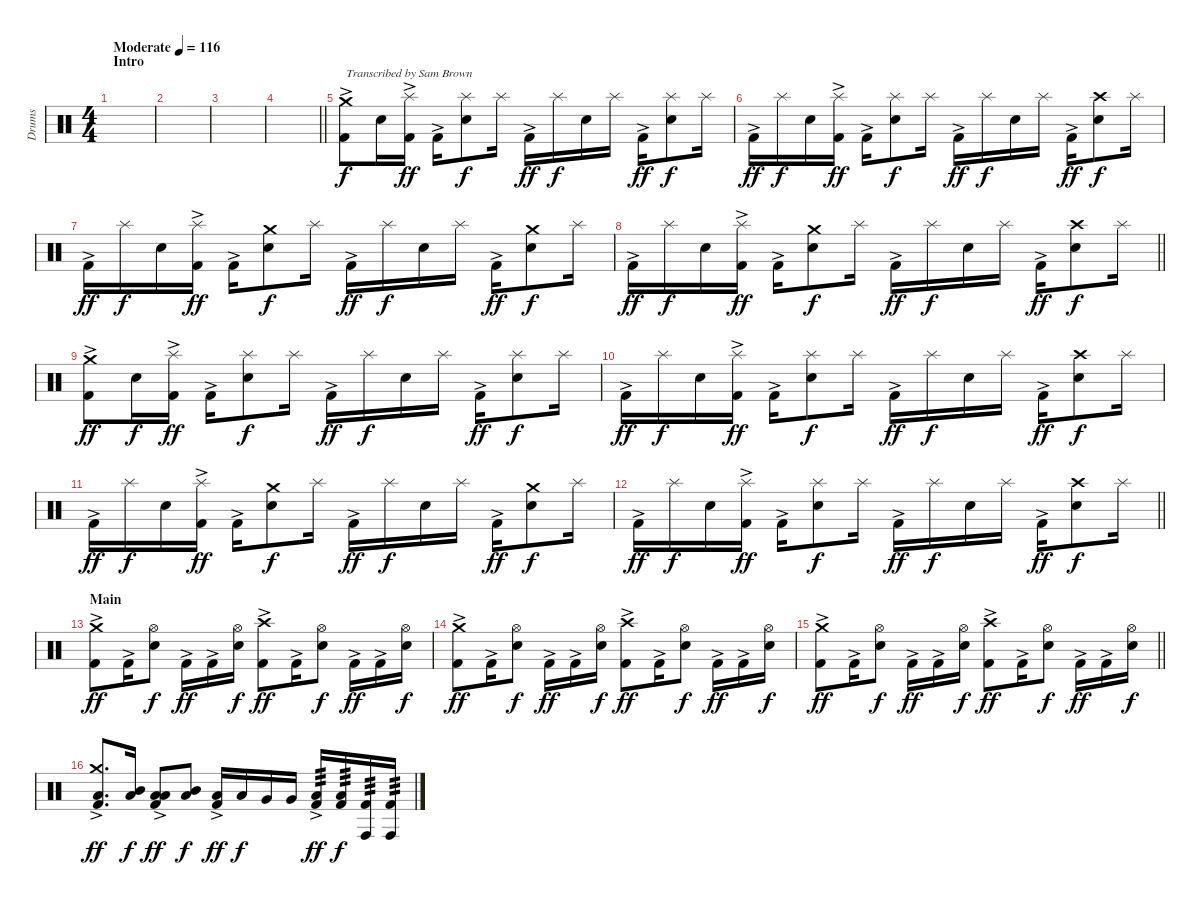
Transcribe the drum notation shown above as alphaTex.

\track ("Drums" "Drums") {instrument percussion}
\staff {score}
\articulation defaults
\ts (4 4)
\section ("" "Intro")
\tempo (116 "Moderate")
\clef neutral
\ks c
|
|
|
\barLineRight lightlight
|
\section ("" "")
("Kick (hit) 2"{ac} "Crash medium (hit)").8{txt "Transcribed by Sam Brown"} "Snare (hit) 2".16{dy f} ("Kick (hit) 2"{ac} "Splash (hit)").16{dy ff} "Kick (hit) 2"{ac}.16 ("Snare (hit) 2" "Splash (hit)").8{dy f} "Splash (hit)".16 "Kick (hit) 2"{ac}.16{dy ff} "Splash (hit)".16{dy f} "Snare (hit) 2".16 "Splash (hit)".16 "Kick (hit) 2"{ac}.16{dy ff} ("Snare (hit) 2" "Splash (hit)").8{dy f} "Splash (hit)".16 |
"Kick (hit) 2"{ac}.16{dy ff} "Splash (hit)".16{dy f} "Snare (hit) 2".16 ("Kick (hit) 2"{ac} "Splash (hit)").16{dy ff} "Kick (hit) 2"{ac}.16 ("Snare (hit) 2" "Splash (hit)").8{dy f} "Splash (hit)".16 "Kick (hit) 2"{ac}.16{dy ff} "Splash (hit)".16{dy f} "Snare (hit) 2".16 "Splash (hit)".16 "Kick (hit) 2"{ac}.16{dy ff} ("Snare (hit) 2" "Crash high (hit)").8{dy f} "Splash (hit)".16 |
"Kick (hit) 2"{ac}.16{dy ff} "Splash (hit)".16{dy f} "Snare (hit) 2".16 ("Kick (hit) 2"{ac} "Splash (hit)").16{dy ff} "Kick (hit) 2"{ac}.16 ("Snare (hit) 2" "Crash medium (hit)").8{dy f} "Splash (hit)".16 "Kick (hit) 2"{ac}.16{dy ff} "Splash (hit)".16{dy f} "Snare (hit) 2".16 "Splash (hit)".16 "Kick (hit) 2"{ac}.16{dy ff} ("Snare (hit) 2" "Crash medium (hit)").8{dy f} "Splash (hit)".16 |
\barLineRight lightlight "Kick (hit) 2"{ac}.16{dy ff} "Splash (hit)".16{dy f} "Snare (hit) 2".16
("Kick (hit) 2"{ac} "Splash (hit)").16{dy ff} "Kick (hit) 2"{ac}.16 ("Snare (hit) 2" "Crash medium (hit)").8{dy f} "Splash (hit)".16 "Kick (hit) 2"{ac}.16{dy ff} "Splash (hit)".16{dy f} "Snare (hit) 2".16 "Splash (hit)".16 "Kick (hit) 2"{ac}.16{dy ff} ("Snare (hit) 2" "Crash high (hit)").8{dy f} "Splash (hit)".16 |
\section ("" "")
("Kick (hit) 2"{ac} "Crash medium (hit)").8{dy ff} "Snare (hit) 2".16{dy f} ("Kick (hit) 2"{ac} "Splash (hit)").16{dy ff} "Kick (hit) 2"{ac}.16 ("Snare (hit) 2" "Splash (hit)").8{dy f} "Splash (hit)".16 "Kick (hit) 2"{ac}.16{dy ff} "Splash (hit)".16{dy f} "Snare (hit) 2".16 "Splash (hit)".16 "Kick (hit) 2"{ac}.16{dy ff} ("Snare (hit) 2" "Splash (hit)").8{dy f} "Splash (hit)".16 |
"Kick (hit) 2"{ac}.16{dy ff} "Splash (hit)".16{dy f} "Snare (hit) 2".16 ("Kick (hit) 2"{ac} "Splash (hit)").16{dy ff} "Kick (hit) 2"{ac}.16 ("Snare (hit) 2" "Splash (hit)").8{dy f} "Splash (hit)".16 "Kick (hit) 2"{ac}.16{dy ff} "Splash (hit)".16{dy f} "Snare (hit) 2".16 "Splash (hit)".16 "Kick (hit) 2"{ac}.16{dy ff} ("Snare (hit) 2" "Crash high (hit)").8{dy f} "Splash (hit)".16 |
"Kick (hit) 2"{ac}.16{dy ff} "Splash (hit)".16{dy f} "Snare (hit) 2".16 ("Kick (hit) 2"{ac} "Splash (hit)").16{dy ff} "Kick (hit) 2"{ac}.16 ("Snare (hit) 2" "Crash medium (hit)").8{dy f} "Splash (hit)".16 "Kick (hit) 2"{ac}.16{dy ff} "Splash (hit)".16{dy f} "Snare (hit) 2".16 "Splash (hit)".16 "Kick (hit) 2"{ac}.16{dy ff} ("Snare (hit) 2" "Crash medium (hit)").8{dy f} "Splash (hit)".16 |
\barLineRight lightlight "Kick (hit) 2"{ac}.16{dy ff} "Splash (hit)".16{dy f} "Snare (hit) 2".16
("Kick (hit) 2"{ac} "Splash (hit)").16{dy ff} "Kick (hit) 2"{ac}.16 ("Snare (hit) 2" "Splash (hit)").8{dy f} "Splash (hit)".16 "Kick (hit) 2"{ac}.16{dy ff} "Splash (hit)".16{dy f} "Snare (hit) 2".16 "Splash (hit)".16 "Kick (hit) 2"{ac}.16{dy ff} ("Snare (hit) 2" "Crash high (hit)").8{dy f} "Splash (hit)".16 |
\section ("" "Main")
("Kick (hit) 2"{ac} "Crash medium (hit)").8{dy ff} "Kick (hit) 2"{ac}.16 ("Snare (hit) 2" "Hi-Hat (open)").8{dy f} "Kick (hit) 2"{ac}.16{dy ff} "Kick (hit) 2"{ac}.16 ("Snare (hit) 2" "Hi-Hat (open)").16{dy f} ("Kick (hit) 2"{ac} "Crash high (hit)").8{dy ff} "Kick (hit) 2"{ac}.16 ("Snare (hit) 2" "Hi-Hat (open)").8{dy f} "Kick (hit) 2"{ac}.16{dy ff} "Kick (hit) 2"{ac}.16 ("Snare (hit) 2" "Hi-Hat (open)").16{dy f} |
("Kick (hit) 2"{ac} "Crash medium (hit)").8{dy ff} "Kick (hit) 2"{ac}.16 ("Snare (hit) 2" "Hi-Hat (open)").8{dy f} "Kick (hit) 2"{ac}.16{dy ff} "Kick (hit) 2"{ac}.16 ("Snare (hit) 2" "Hi-Hat (open)").16{dy f} ("Kick (hit) 2"{ac} "Crash high (hit)").8{dy ff} "Kick (hit) 2"{ac}.16 ("Snare (hit) 2" "Hi-Hat (open)").8{dy f} "Kick (hit) 2"{ac}.16{dy ff} "Kick (hit) 2"{ac}.16 ("Snare (hit) 2" "Hi-Hat (open)").16{dy f} |
\barLineRight lightlight
("Kick (hit) 2"{ac} "Crash medium (hit)").8{dy ff} "Kick (hit) 2"{ac}.16 ("Snare (hit) 2" "Hi-Hat (open)").8{dy f} "Kick (hit) 2"{ac}.16{dy ff} "Kick (hit) 2"{ac}.16 ("Snare (hit) 2" "Hi-Hat (open)").16{dy f} ("Kick (hit) 2"{ac} "Crash high (hit)").8{dy ff} "Kick (hit) 2"{ac}.16 ("Snare (hit) 2" "Hi-Hat (open)").8{dy f} "Kick (hit) 2"{ac}.16{dy ff} "Kick (hit) 2"{ac}.16 ("Snare (hit) 2" "Hi-Hat (open)").16{dy f} |
\section ("" "")
("Kick (hit) 2"{ac} "Low Floor Tom (hit)" "Crash medium (hit)").8{d dy ff} ("Mid Tom (hit)" "Low Floor Tom (hit)").16{dy f} ("Kick (hit) 2"{ac} "Low Tom (hit)" "Low Floor Tom (hit)").8{dy ff} ("Mid Tom (hit)" "Low Floor Tom (hit)").8{dy f} ("Kick (hit) 2"{ac} "Low Tom (hit)").16{dy ff} "Low Tom (hit)".16{dy f} "Very Low Tom (hit)".16 "Very Low Tom (hit)".16 ("Kick (hit) 2"{ac} "Low Floor Tom (hit)").16{tp 3 dy ff} ("Kick (hit) 2" "Low Floor Tom (hit)").16{tp 3 dy f} ("Kick (hit) 2" "Conga high (hit)").16{tp 3} ("Kick (hit) 2" "Conga high (hit)").16{tp 3}
